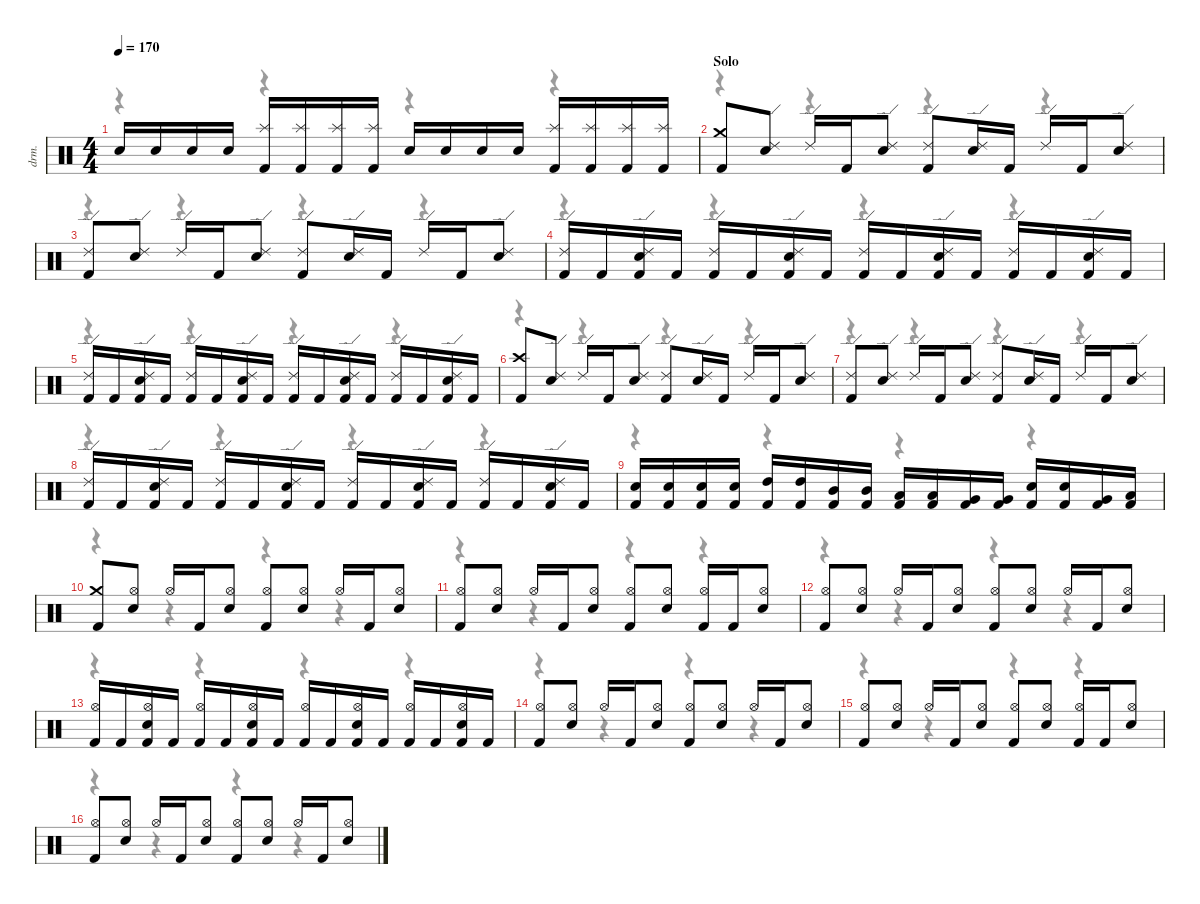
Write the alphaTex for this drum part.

\hideDynamics
\bracketExtendMode nobrackets
\otherSystemsTrackNameOrientation horizontal
\track ("Drums" "drm.") {instrument percussion}
\staff {score}
\articulation defaults
\voice
\ts (4 4)
\scale
1.09391
\tempo 170
\accidentals auto
\clef neutral
\ottava regular
\simile none
\ks c "Snare (hit) 2".16{dy f} "Snare (hit) 2".16 "Snare (hit) 2".16 "Snare (hit) 2".16
("Kick (hit) 2" "Splash (hit)").16 ("Kick (hit) 2" "Splash (hit)").16 ("Kick (hit) 2" "Splash (hit)").16 ("Kick (hit) 2" "Splash (hit)").16 "Snare (hit) 2".16 "Snare (hit) 2".16 "Snare (hit) 2".16 "Snare (hit) 2".16 ("Kick (hit) 2" "Splash (hit)").16 ("Kick (hit) 2" "Splash (hit)").16 ("Kick (hit) 2" "Splash (hit)").16 ("Kick (hit) 2" "Splash (hit)").16 |
\section ("" "Solo")
\scale
0.978277 ("Kick (hit) 2" "Crash medium (hit)").8 ("Snare (hit) 2" "Ride (edge) 2").8 "Ride (edge) 2".16 "Kick (hit) 2".16 ("Snare (hit) 2" "Ride (edge) 2").8 ("Kick (hit) 2" "Ride (edge) 2").8 ("Snare (hit) 2" "Ride (edge) 2").16 "Kick (hit) 2".16 "Ride (edge) 2".16 "Kick (hit) 2".16 ("Snare (hit) 2" "Ride (edge) 2").8 |
\scale
0.978277 ("Kick (hit) 2" "Ride (edge) 2").8 ("Snare (hit) 2" "Ride (edge) 2").8 "Ride (edge) 2".16 "Kick (hit) 2".16 ("Snare (hit) 2" "Ride (edge) 2").8 ("Kick (hit) 2" "Ride (edge) 2").8 ("Snare (hit) 2" "Ride (edge) 2").16 "Kick (hit) 2".16 "Ride (edge) 2".16 "Kick (hit) 2".16 ("Snare (hit) 2" "Ride (edge) 2").8 |
\scale
0.978277 ("Kick (hit) 2" "Ride (edge) 2").16 "Kick (hit) 2".16 ("Kick (hit) 2" "Snare (hit) 2" "Ride (edge) 2").16 "Kick (hit) 2".16 ("Kick (hit) 2" "Ride (edge) 2").16 "Kick (hit) 2".16 ("Kick (hit) 2" "Snare (hit) 2" "Ride (edge) 2").16 "Kick (hit) 2".16 ("Kick (hit) 2" "Ride (edge) 2").16 "Kick (hit) 2".16 ("Kick (hit) 2" "Snare (hit) 2" "Ride (edge) 2").16 "Kick (hit) 2".16 ("Kick (hit) 2" "Ride (edge) 2").16 "Kick (hit) 2".16 ("Kick (hit) 2" "Snare (hit) 2" "Ride (edge) 2").16 "Kick (hit) 2".16 |
\scale
0.978277 ("Kick (hit) 2" "Ride (edge) 2").16 "Kick (hit) 2".16 ("Kick (hit) 2" "Snare (hit) 2" "Ride (edge) 2").16 "Kick (hit) 2".16 ("Kick (hit) 2" "Ride (edge) 2").16 "Kick (hit) 2".16 ("Kick (hit) 2" "Snare (hit) 2" "Ride (edge) 2").16 "Kick (hit) 2".16 ("Kick (hit) 2" "Ride (edge) 2").16 "Kick (hit) 2".16 ("Kick (hit) 2" "Snare (hit) 2" "Ride (edge) 2").16 "Kick (hit) 2".16 ("Kick (hit) 2" "Ride (edge) 2").16 "Kick (hit) 2".16 ("Kick (hit) 2" "Snare (hit) 2" "Ride (edge) 2").16 "Kick (hit) 2".16 |
\scale
0.992988 ("Kick (hit) 2" "Crash high (hit)").8 ("Snare (hit) 2" "Ride (edge) 2").8 "Ride (edge) 2".16 "Kick (hit) 2".16 ("Snare (hit) 2" "Ride (edge) 2").8 ("Kick (hit) 2" "Ride (edge) 2").8 ("Snare (hit) 2" "Ride (edge) 2").16 "Kick (hit) 2".16 "Ride (edge) 2".16 "Kick (hit) 2".16 ("Snare (hit) 2" "Ride (edge) 2").8 |
\scale
1.06188 ("Kick (hit) 2" "Ride (edge) 2").8 ("Snare (hit) 2" "Ride (edge) 2").8 "Ride (edge) 2".16 "Kick (hit) 2".16 ("Snare (hit) 2" "Ride (edge) 2").8 ("Kick (hit) 2" "Ride (edge) 2").8 ("Snare (hit) 2" "Ride (edge) 2").16 "Kick (hit) 2".16 "Ride (edge) 2".16 "Kick (hit) 2".16 ("Snare (hit) 2" "Ride (edge) 2").8 |
\scale
0.988084 ("Kick (hit) 2" "Ride (edge) 2").16 "Kick (hit) 2".16 ("Kick (hit) 2" "Snare (hit) 2" "Ride (edge) 2").16 "Kick (hit) 2".16 ("Kick (hit) 2" "Ride (edge) 2").16 "Kick (hit) 2".16 ("Kick (hit) 2" "Snare (hit) 2" "Ride (edge) 2").16 "Kick (hit) 2".16 ("Kick (hit) 2" "Ride (edge) 2").16 "Kick (hit) 2".16 ("Kick (hit) 2" "Snare (hit) 2" "Ride (edge) 2").16 "Kick (hit) 2".16 ("Kick (hit) 2" "Ride (edge) 2").16 "Kick (hit) 2".16 ("Kick (hit) 2" "Snare (hit) 2" "Ride (edge) 2").16 "Kick (hit) 2".16 |
\scale
0.986122 ("Kick (hit) 2" "Snare (hit) 2").16 ("Kick (hit) 2" "Snare (hit) 2").16 ("Kick (hit) 2" "Snare (hit) 2").16 ("Kick (hit) 2" "Snare (hit) 2").16 ("Kick (hit) 2" "High Tom (hit)").16 ("Kick (hit) 2" "High Tom (hit)").16 ("Kick (hit) 2" "Mid Tom (hit)").16 ("Kick (hit) 2" "Mid Tom (hit)").16 ("Kick (hit) 2" "Low Tom (hit)").16 ("Kick (hit) 2" "Low Tom (hit)").16 ("Kick (hit) 2" "Very Low Tom (hit)").16 ("Kick (hit) 2" "Very Low Tom (hit)").16 ("Kick (hit) 2" "Snare (hit) 2").16 ("Kick (hit) 2" "Snare (hit) 2").16 ("Kick (hit) 2" "Very Low Tom (hit)").16 ("Kick (hit) 2" "Low Floor Tom (hit)").16 |
\section ("" "")
\scale
0.975825 ("Kick (hit) 2" "Crash medium (hit)").8 ("Snare (hit) 2" "Hi-Hat (open)").8 "Hi-Hat (open)".16 "Kick (hit) 2".16 ("Snare (hit) 2" "Hi-Hat (open)").8 ("Kick (hit) 2" "Hi-Hat (open)").8 ("Snare (hit) 2" "Hi-Hat (open)").8 "Hi-Hat (open)".16 "Kick (hit) 2".16 ("Snare (hit) 2" "Hi-Hat (open)").8 |
\scale
0.988084 ("Kick (hit) 2" "Hi-Hat (open)").8 ("Snare (hit) 2" "Hi-Hat (open)").8 "Hi-Hat (open)".16 "Kick (hit) 2".16 ("Snare (hit) 2" "Hi-Hat (open)").8 ("Kick (hit) 2" "Hi-Hat (open)").8 ("Snare (hit) 2" "Hi-Hat (open)").8 ("Kick (hit) 2" "Hi-Hat (open)").16 "Kick (hit) 2".16 ("Snare (hit) 2" "Hi-Hat (open)").8 |
\scale
1.0664 ("Kick (hit) 2" "Hi-Hat (open)").8 ("Snare (hit) 2" "Hi-Hat (open)").8 "Hi-Hat (open)".16 "Kick (hit) 2".16 ("Snare (hit) 2" "Hi-Hat (open)").8 ("Kick (hit) 2" "Hi-Hat (open)").8 ("Snare (hit) 2" "Hi-Hat (open)").8 "Hi-Hat (open)".16 "Kick (hit) 2".16 ("Snare (hit) 2" "Hi-Hat (open)").8 |
\scale
0.980336 ("Kick (hit) 2" "Hi-Hat (open)").16 "Kick (hit) 2".16 ("Kick (hit) 2" "Snare (hit) 2" "Hi-Hat (open)").16 "Kick (hit) 2".16 ("Kick (hit) 2" "Hi-Hat (open)").16 "Kick (hit) 2".16 ("Kick (hit) 2" "Snare (hit) 2" "Hi-Hat (open)").16 "Kick (hit) 2".16 ("Kick (hit) 2" "Hi-Hat (open)").16 "Kick (hit) 2".16 ("Kick (hit) 2" "Snare (hit) 2" "Hi-Hat (open)").16 "Kick (hit) 2".16 ("Kick (hit) 2" "Hi-Hat (open)").16 "Kick (hit) 2".16 ("Kick (hit) 2" "Snare (hit) 2" "Hi-Hat (open)").16 "Kick (hit) 2".16 |
\scale
0.980336 ("Kick (hit) 2" "Hi-Hat (open)").8 ("Snare (hit) 2" "Hi-Hat (open)").8 "Hi-Hat (open)".16 "Kick (hit) 2".16 ("Snare (hit) 2" "Hi-Hat (open)").8 ("Kick (hit) 2" "Hi-Hat (open)").8 ("Snare (hit) 2" "Hi-Hat (open)").8 "Hi-Hat (open)".16 "Kick (hit) 2".16 ("Snare (hit) 2" "Hi-Hat (open)").8 |
\scale
0.992595 ("Kick (hit) 2" "Hi-Hat (open)").8 ("Snare (hit) 2" "Hi-Hat (open)").8 "Hi-Hat (open)".16 "Kick (hit) 2".16 ("Snare (hit) 2" "Hi-Hat (open)").8 ("Kick (hit) 2" "Hi-Hat (open)").8 ("Snare (hit) 2" "Hi-Hat (open)").8 ("Kick (hit) 2" "Hi-Hat (open)").16 "Kick (hit) 2".16 ("Snare (hit) 2" "Hi-Hat (open)").8 |
\scale
0.980336 ("Kick (hit) 2" "Hi-Hat (open)").8 ("Snare (hit) 2" "Hi-Hat (open)").8 "Hi-Hat (open)".16 "Kick (hit) 2".16 ("Snare (hit) 2" "Hi-Hat (open)").8 ("Kick (hit) 2" "Hi-Hat (open)").8 ("Snare (hit) 2" "Hi-Hat (open)").8 "Hi-Hat (open)".16 "Kick (hit) 2".16 ("Snare (hit) 2" "Hi-Hat (open)").8
\voice
\clef neutral
\ottava regular
\simile none
\ks c
r.4{dy mf} r.4 r.4 r.4 |
r.4 r.4 r.4 r.4 |
r.4 r.4 r.4 r.4 |
r.4 r.4 r.4 r.4 |
r.4 r.4 r.4 r.4 |
r.4 r.4 r.4 r.4 |
r.4 r.4 r.4 r.4 |
r.4 r.4 r.4 r.4 |
r.4 r.4 r.4 r.4 |
r.4 r.4 r.4 r.4 |
r.4 r.4 r.4 r.4 |
r.4 r.4 r.4 r.4 |
r.4 r.4 r.4 r.4 |
r.4 r.4 r.4 r.4 |
r.4 r.4 r.4 r.4 |
r.4 r.4 r.4 r.4
